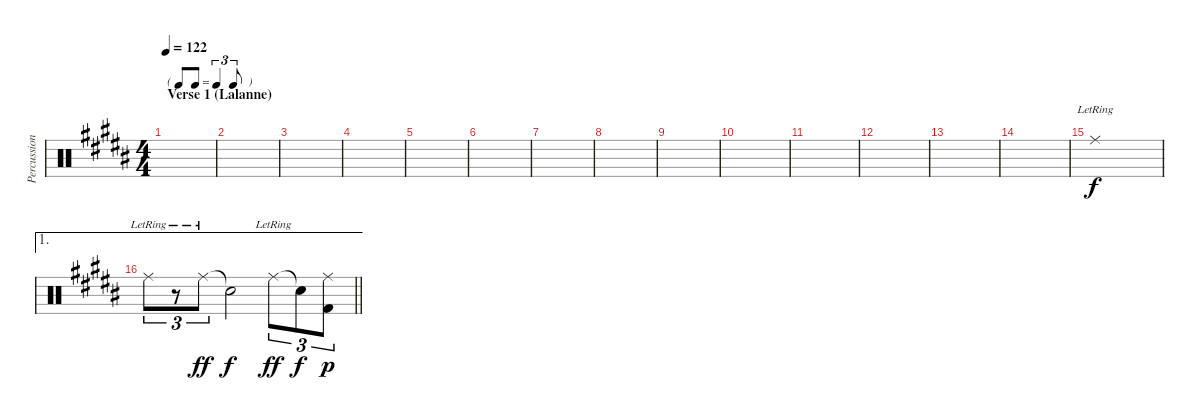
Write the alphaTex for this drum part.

\track ("Percussion" "Percussion") {instrument percussion}
\staff {score}
\articulation defaults
\ts (4 4)
\tf triplet8th
\section ("" "Verse 1 (Lalanne)")
\tempo 122
\clef neutral
\ks g#minor
|
|
|
|
|
|
|
|
|
|
|
|
|
|
"Ride (middle)"{lr}.1 |
\ae 1
\barLineRight lightlight "Ride (middle)"{lr}.8{tu (3 2) dy f}
r.8{tu (3 2)} "Ride (middle)"{lr}.8{tu (3 2) dy ff} "Snare (hit)"{t}.2{dy f} "Ride (middle)"{lr}.8{tu (3 2) dy ff} "Snare (hit)"{t}.8{tu (3 2) dy f} ("Ride (middle)" "Kick (hit) 2").8{tu (3 2) dy p}
